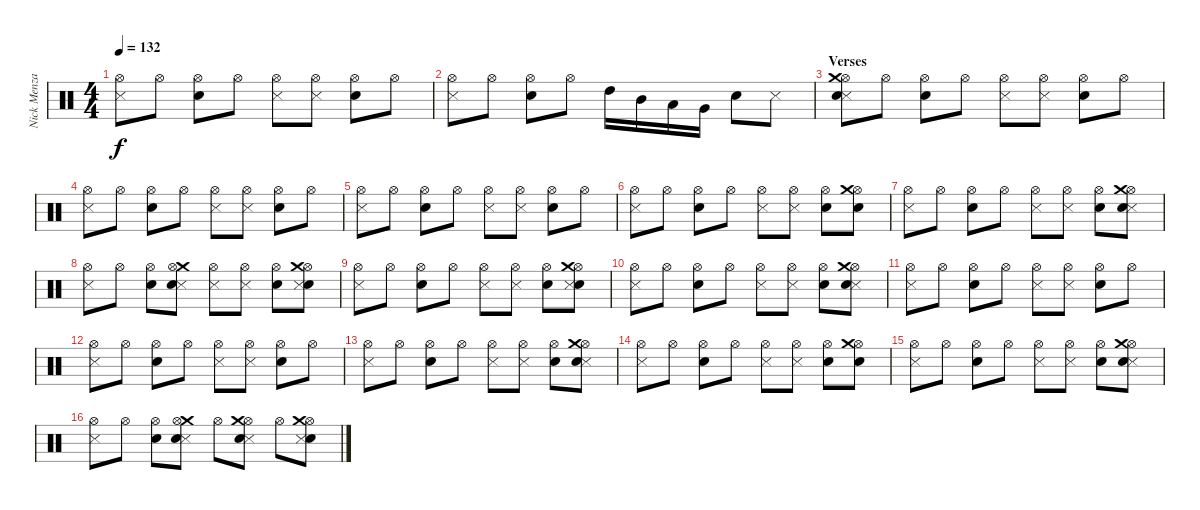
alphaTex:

\track ("Nick Menza (Drums)" "Nick Menza") {instrument percussion}
\staff {score}
\articulation defaults
\ts (4 4)
\tempo 132
\clef neutral
\ks c
("Hi-Hat (open)" "Metronome (hit)").8{dy f} "Hi-Hat (open)".8 ("Electric Snare (hit)" "Hi-Hat (open)").8 "Hi-Hat (open)".8 ("Hi-Hat (open)" "Metronome (hit)").8 ("Hi-Hat (open)" "Metronome (hit)").8 ("Hi-Hat (open)" "Electric Snare (hit)").8 "Hi-Hat (open)".8 |
("Hi-Hat (open)" "Metronome (hit)").8 "Hi-Hat (open)".8 ("Hi-Hat (open)" "Electric Snare (hit)").8 "Hi-Hat (open)".8 "High Tom (hit)".16 "Mid Tom (hit)".16 "Low Tom (hit)".16 "Very Low Tom (hit)".16 "Electric Snare (hit)".8 "Metronome (hit)".8 |
\section ("" "Verses")
("Metronome (hit)" "Electric Snare (hit)" "Hi-Hat (open)" "Crash medium (hit)").8 "Hi-Hat (open)".8 ("Electric Snare (hit)" "Hi-Hat (open)").8 "Hi-Hat (open)".8 ("Hi-Hat (open)" "Metronome (hit)").8 ("Hi-Hat (open)" "Metronome (hit)").8 ("Hi-Hat (open)" "Electric Snare (hit)").8 "Hi-Hat (open)".8 |
("Hi-Hat (open)" "Metronome (hit)").8 "Hi-Hat (open)".8 ("Hi-Hat (open)" "Electric Snare (hit)").8 "Hi-Hat (open)".8 ("Hi-Hat (open)" "Metronome (hit)").8 ("Metronome (hit)" "Hi-Hat (open)").8 ("Hi-Hat (open)" "Electric Snare (hit)").8 "Hi-Hat (open)".8 |
("Hi-Hat (open)" "Metronome (hit)").8 "Hi-Hat (open)".8 ("Electric Snare (hit)" "Hi-Hat (open)").8 "Hi-Hat (open)".8 ("Hi-Hat (open)" "Metronome (hit)").8 ("Metronome (hit)" "Hi-Hat (open)").8 ("Hi-Hat (open)" "Electric Snare (hit)").8 "Hi-Hat (open)".8 |
("Metronome (hit)" "Hi-Hat (open)").8 "Hi-Hat (open)".8 ("Electric Snare (hit)" "Hi-Hat (open)").8 "Hi-Hat (open)".8 ("Hi-Hat (open)" "Metronome (hit)").8 ("Metronome (hit)" "Hi-Hat (open)").8 ("Hi-Hat (open)" "Electric Snare (hit)").8 ("Hi-Hat (open)" "Electric Snare (hit)" "Crash medium (hit)").8 |
("Metronome (hit)" "Hi-Hat (open)").8 "Hi-Hat (open)".8 ("Electric Snare (hit)" "Hi-Hat (open)").8 "Hi-Hat (open)".8 ("Hi-Hat (open)" "Metronome (hit)").8 ("Metronome (hit)" "Hi-Hat (open)").8 ("Hi-Hat (open)" "Electric Snare (hit)").8 ("Hi-Hat (open)" "Metronome (hit)" "Electric Snare (hit)" "Crash medium (hit)").8 |
("Hi-Hat (open)" "Metronome (hit)").8 "Hi-Hat (open)".8 ("Electric Snare (hit)" "Hi-Hat (open)").8 ("Metronome (hit)" "Crash medium (hit)" "Electric Snare (hit)" "Hi-Hat (open)").8 ("Hi-Hat (open)" "Metronome (hit)").8 ("Hi-Hat (open)" "Metronome (hit)").8 ("Hi-Hat (open)" "Electric Snare (hit)").8 ("Hi-Hat (open)" "Electric Snare (hit)" "Metronome (hit)" "Crash medium (hit)").8 |
("Metronome (hit)" "Hi-Hat (open)").8 "Hi-Hat (open)".8 ("Electric Snare (hit)" "Hi-Hat (open)").8 "Hi-Hat (open)".8 ("Hi-Hat (open)" "Metronome (hit)").8 ("Metronome (hit)" "Hi-Hat (open)").8 ("Hi-Hat (open)" "Electric Snare (hit)").8 ("Hi-Hat (open)" "Electric Snare (hit)" "Metronome (hit)" "Crash medium (hit)").8 |
("Hi-Hat (open)" "Metronome (hit)").8 "Hi-Hat (open)".8 ("Hi-Hat (open)" "Electric Snare (hit)").8 "Hi-Hat (open)".8 ("Metronome (hit)" "Hi-Hat (open)").8 ("Metronome (hit)" "Hi-Hat (open)").8 ("Hi-Hat (open)" "Electric Snare (hit)").8 ("Hi-Hat (open)" "Crash medium (hit)" "Metronome (hit)" "Electric Snare (hit)").8 |
("Hi-Hat (open)" "Metronome (hit)").8 "Hi-Hat (open)".8 ("Electric Snare (hit)" "Hi-Hat (open)").8 "Hi-Hat (open)".8 ("Hi-Hat (open)" "Metronome (hit)").8 ("Metronome (hit)" "Hi-Hat (open)").8 ("Hi-Hat (open)" "Electric Snare (hit)").8 "Hi-Hat (open)".8 |
("Metronome (hit)" "Hi-Hat (open)").8 "Hi-Hat (open)".8 ("Electric Snare (hit)" "Hi-Hat (open)").8 "Hi-Hat (open)".8 ("Hi-Hat (open)" "Metronome (hit)").8 ("Metronome (hit)" "Hi-Hat (open)").8 ("Hi-Hat (open)" "Electric Snare (hit)").8 "Hi-Hat (open)".8 |
("Metronome (hit)" "Hi-Hat (open)").8 "Hi-Hat (open)".8 ("Electric Snare (hit)" "Hi-Hat (open)").8 "Hi-Hat (open)".8 ("Hi-Hat (open)" "Metronome (hit)").8 ("Metronome (hit)" "Hi-Hat (open)").8 ("Hi-Hat (open)" "Electric Snare (hit)").8 ("Hi-Hat (open)" "Metronome (hit)" "Electric Snare (hit)" "Crash medium (hit)").8 |
("Metronome (hit)" "Hi-Hat (open)").8 "Hi-Hat (open)".8 ("Electric Snare (hit)" "Hi-Hat (open)").8 "Hi-Hat (open)".8 ("Hi-Hat (open)" "Metronome (hit)").8 ("Metronome (hit)" "Hi-Hat (open)").8 ("Hi-Hat (open)" "Electric Snare (hit)").8 ("Hi-Hat (open)" "Electric Snare (hit)" "Crash medium (hit)").8 |
("Metronome (hit)" "Hi-Hat (open)").8 "Hi-Hat (open)".8 ("Hi-Hat (open)" "Electric Snare (hit)").8 "Hi-Hat (open)".8 ("Metronome (hit)" "Hi-Hat (open)").8 ("Hi-Hat (open)" "Metronome (hit)").8 ("Electric Snare (hit)" "Hi-Hat (open)").8 ("Hi-Hat (open)" "Metronome (hit)" "Electric Snare (hit)" "Crash medium (hit)").8 |
("Hi-Hat (open)" "Metronome (hit)").8 "Hi-Hat (open)".8 ("Hi-Hat (open)" "Electric Snare (hit)").8 ("Metronome (hit)" "Crash medium (hit)" "Electric Snare (hit)" "Hi-Hat (open)").8 "Hi-Hat (open)".8 ("Hi-Hat (open)" "Crash medium (hit)" "Metronome (hit)" "Electric Snare (hit)").8 "Hi-Hat (open)".8 ("Hi-Hat (open)" "Electric Snare (hit)" "Metronome (hit)" "Crash medium (hit)").8
